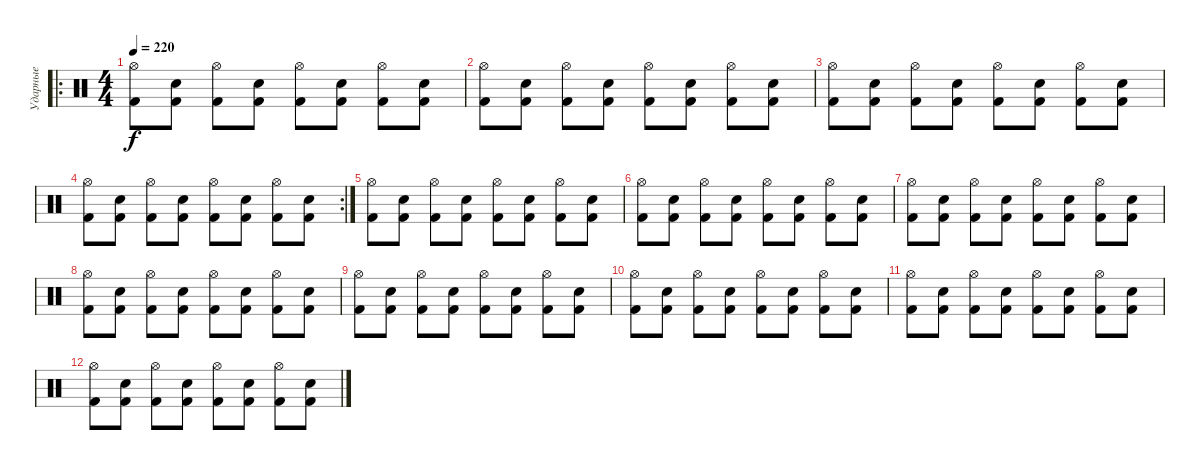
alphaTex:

\track ("Ударные" "Ударные") {instrument percussion}
\staff {score}
\articulation defaults
\ro
\ts (4 4)
\tempo 220
\clef neutral
\ks c
("Kick (hit) 2" "Hi-Hat (open)").8{dy f} ("Kick (hit) 2" "Snare (hit) 2").8 ("Kick (hit) 2" "Hi-Hat (open)").8 ("Kick (hit) 2" "Snare (hit) 2").8 ("Kick (hit) 2" "Hi-Hat (open)").8 ("Kick (hit) 2" "Snare (hit) 2").8 ("Kick (hit) 2" "Hi-Hat (open)").8 ("Kick (hit) 2" "Snare (hit) 2").8 |
("Kick (hit) 2" "Hi-Hat (open)").8 ("Kick (hit) 2" "Snare (hit) 2").8 ("Kick (hit) 2" "Hi-Hat (open)").8 ("Kick (hit) 2" "Snare (hit) 2").8 ("Kick (hit) 2" "Hi-Hat (open)").8 ("Kick (hit) 2" "Snare (hit) 2").8 ("Kick (hit) 2" "Hi-Hat (open)").8 ("Kick (hit) 2" "Snare (hit) 2").8 |
("Kick (hit) 2" "Hi-Hat (open)").8 ("Kick (hit) 2" "Snare (hit) 2").8 ("Kick (hit) 2" "Hi-Hat (open)").8 ("Kick (hit) 2" "Snare (hit) 2").8 ("Kick (hit) 2" "Hi-Hat (open)").8 ("Kick (hit) 2" "Snare (hit) 2").8 ("Kick (hit) 2" "Hi-Hat (open)").8 ("Kick (hit) 2" "Snare (hit) 2").8 |
\rc 2
("Kick (hit) 2" "Hi-Hat (open)").8 ("Kick (hit) 2" "Snare (hit) 2").8 ("Kick (hit) 2" "Hi-Hat (open)").8 ("Kick (hit) 2" "Snare (hit) 2").8 ("Kick (hit) 2" "Hi-Hat (open)").8 ("Kick (hit) 2" "Snare (hit) 2").8 ("Kick (hit) 2" "Hi-Hat (open)").8 ("Kick (hit) 2" "Snare (hit) 2").8 |
("Kick (hit) 2" "Hi-Hat (open)").8 ("Kick (hit) 2" "Snare (hit) 2").8 ("Kick (hit) 2" "Hi-Hat (open)").8 ("Kick (hit) 2" "Snare (hit) 2").8 ("Kick (hit) 2" "Hi-Hat (open)").8 ("Kick (hit) 2" "Snare (hit) 2").8 ("Kick (hit) 2" "Hi-Hat (open)").8 ("Kick (hit) 2" "Snare (hit) 2").8 |
("Kick (hit) 2" "Hi-Hat (open)").8 ("Kick (hit) 2" "Snare (hit) 2").8 ("Kick (hit) 2" "Hi-Hat (open)").8 ("Kick (hit) 2" "Snare (hit) 2").8 ("Kick (hit) 2" "Hi-Hat (open)").8 ("Kick (hit) 2" "Snare (hit) 2").8 ("Kick (hit) 2" "Hi-Hat (open)").8 ("Kick (hit) 2" "Snare (hit) 2").8 |
("Kick (hit) 2" "Hi-Hat (open)").8 ("Kick (hit) 2" "Snare (hit) 2").8 ("Kick (hit) 2" "Hi-Hat (open)").8 ("Kick (hit) 2" "Snare (hit) 2").8 ("Kick (hit) 2" "Hi-Hat (open)").8 ("Kick (hit) 2" "Snare (hit) 2").8 ("Kick (hit) 2" "Hi-Hat (open)").8 ("Kick (hit) 2" "Snare (hit) 2").8 |
("Kick (hit) 2" "Hi-Hat (open)").8 ("Kick (hit) 2" "Snare (hit) 2").8 ("Kick (hit) 2" "Hi-Hat (open)").8 ("Kick (hit) 2" "Snare (hit) 2").8 ("Kick (hit) 2" "Hi-Hat (open)").8 ("Kick (hit) 2" "Snare (hit) 2").8 ("Kick (hit) 2" "Hi-Hat (open)").8 ("Kick (hit) 2" "Snare (hit) 2").8 |
("Kick (hit) 2" "Hi-Hat (open)").8 ("Kick (hit) 2" "Snare (hit) 2").8 ("Kick (hit) 2" "Hi-Hat (open)").8 ("Kick (hit) 2" "Snare (hit) 2").8 ("Kick (hit) 2" "Hi-Hat (open)").8 ("Kick (hit) 2" "Snare (hit) 2").8 ("Kick (hit) 2" "Hi-Hat (open)").8 ("Kick (hit) 2" "Snare (hit) 2").8 |
("Kick (hit) 2" "Hi-Hat (open)").8 ("Kick (hit) 2" "Snare (hit) 2").8 ("Kick (hit) 2" "Hi-Hat (open)").8 ("Kick (hit) 2" "Snare (hit) 2").8 ("Kick (hit) 2" "Hi-Hat (open)").8 ("Kick (hit) 2" "Snare (hit) 2").8 ("Kick (hit) 2" "Hi-Hat (open)").8 ("Kick (hit) 2" "Snare (hit) 2").8 |
("Kick (hit) 2" "Hi-Hat (open)").8 ("Kick (hit) 2" "Snare (hit) 2").8 ("Kick (hit) 2" "Hi-Hat (open)").8 ("Kick (hit) 2" "Snare (hit) 2").8 ("Kick (hit) 2" "Hi-Hat (open)").8 ("Kick (hit) 2" "Snare (hit) 2").8 ("Kick (hit) 2" "Hi-Hat (open)").8 ("Kick (hit) 2" "Snare (hit) 2").8 |
("Kick (hit) 2" "Hi-Hat (open)").8 ("Kick (hit) 2" "Snare (hit) 2").8 ("Kick (hit) 2" "Hi-Hat (open)").8 ("Kick (hit) 2" "Snare (hit) 2").8 ("Kick (hit) 2" "Hi-Hat (open)").8 ("Kick (hit) 2" "Snare (hit) 2").8 ("Kick (hit) 2" "Hi-Hat (open)").8 ("Kick (hit) 2" "Snare (hit) 2").8
